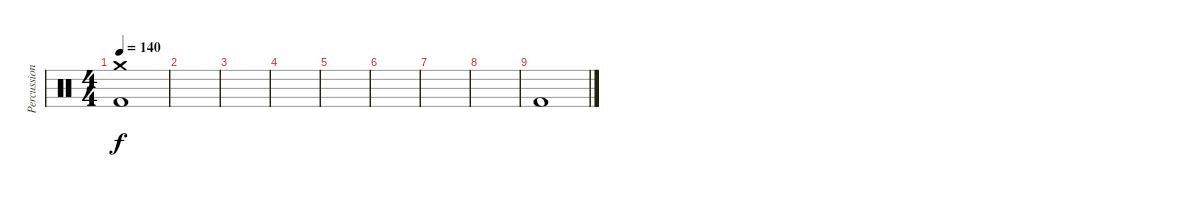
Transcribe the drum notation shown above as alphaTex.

\track ("Percussion" "Percussion") {instrument percussion}
\staff {score}
\articulation defaults
\ts (4 4)
\tempo 140
\clef neutral
\ks c
("Crash medium (hit)" "Kick (hit) 2").1{dy f} |
|
|
|
|
|
|
|
"Kick (hit) 2".1
